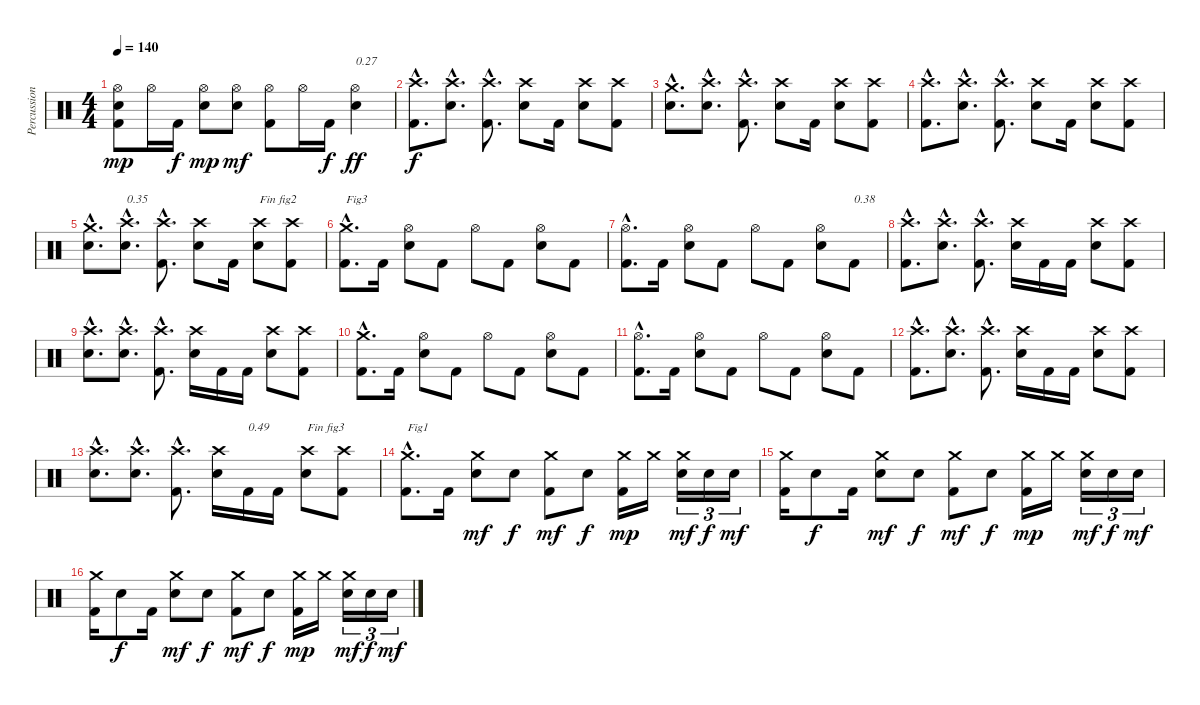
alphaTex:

\track ("Percussions" "Percussion") {instrument percussion}
\staff {score}
\articulation defaults
\ts (4 4)
\tempo 140
\clef neutral
\ks c
("Kick (hit) 2" "Electric Snare (hit)" "Hi-Hat (open)").8{dy mp} "Hi-Hat (open)".16 "Kick (hit) 2".16{dy f} ("Electric Snare (hit)" "Hi-Hat (open)").8{dy mp} ("Electric Snare (hit)" "Hi-Hat (open)").8{dy mf} ("Kick (hit) 2" "Hi-Hat (open)").8 "Hi-Hat (open)".16 "Kick (hit) 2".16{dy f} ("Electric Snare (hit)" "Hi-Hat (open)").4{txt "0.27" dy ff} |
("Kick (hit) 2"{hac} "Crash high (hit)"{hac}).8{d dy f} ("Electric Snare (hit)"{hac} "Crash high (hit)"{hac}).8{d} ("Kick (hit) 2"{hac} "Crash high (hit)"{hac}).8{d} ("Electric Snare (hit)" "Crash high (hit)").8 "Kick (hit) 2".16 ("Electric Snare (hit)" "Crash high (hit)").8 ("Kick (hit) 2" "Crash high (hit)").8 |
("Electric Snare (hit)"{hac} "Crash medium (hit)"{hac}).8{d} ("Electric Snare (hit)"{hac} "Crash high (hit)"{hac}).8{d} ("Kick (hit) 2"{hac} "Crash high (hit)"{hac}).8{d} ("Electric Snare (hit)" "Crash high (hit)").8 "Kick (hit) 2".16 ("Electric Snare (hit)" "Crash high (hit)").8 ("Kick (hit) 2" "Crash high (hit)").8 |
("Kick (hit) 2"{hac} "Crash high (hit)"{hac}).8{d} ("Electric Snare (hit)"{hac} "Crash high (hit)"{hac}).8{d} ("Kick (hit) 2"{hac} "Crash high (hit)"{hac}).8{d} ("Electric Snare (hit)" "Crash high (hit)").8 "Kick (hit) 2".16 ("Electric Snare (hit)" "Crash high (hit)").8 ("Kick (hit) 2" "Crash high (hit)").8 |
("Electric Snare (hit)"{hac} "Crash medium (hit)"{hac}).8{d} ("Electric Snare (hit)"{hac} "Crash high (hit)"{hac}).8{d txt "0.35"} ("Kick (hit) 2"{hac} "Crash high (hit)"{hac}).8{d} ("Electric Snare (hit)" "Crash high (hit)").8 "Kick (hit) 2".16 ("Electric Snare (hit)" "Crash high (hit)").8{txt "Fin fig2"} ("Kick (hit) 2" "Crash high (hit)").8 |
("Kick (hit) 2"{hac} "Crash medium (hit)"{hac}).8{d txt "Fig3"} "Kick (hit) 2".16 ("Electric Snare (hit)" "Hi-Hat (open)").8 "Kick (hit) 2".8 "Hi-Hat (open)".8 "Kick (hit) 2".8 ("Electric Snare (hit)" "Hi-Hat (open)").8 "Kick (hit) 2".8 |
("Kick (hit) 2"{hac} "Hi-Hat (open)"{hac}).8{d} "Kick (hit) 2".16 ("Electric Snare (hit)" "Hi-Hat (open)").8 "Kick (hit) 2".8 "Hi-Hat (open)".8 "Kick (hit) 2".8 ("Electric Snare (hit)" "Hi-Hat (open)").8 "Kick (hit) 2".8{txt "0.38"} |
("Kick (hit) 2"{hac} "Crash high (hit)"{hac}).8{d} ("Electric Snare (hit)"{hac} "Crash high (hit)"{hac}).8{d} ("Kick (hit) 2"{hac} "Crash high (hit)"{hac}).8{d} ("Electric Snare (hit)" "Crash high (hit)").16 "Kick (hit) 2".16 "Kick (hit) 2".16 ("Electric Snare (hit)" "Crash high (hit)").8 ("Kick (hit) 2" "Crash high (hit)").8 |
("Electric Snare (hit)"{hac} "Crash high (hit)"{hac}).8{d} ("Electric Snare (hit)"{hac} "Crash high (hit)"{hac}).8{d} ("Kick (hit) 2"{hac} "Crash high (hit)"{hac}).8{d} ("Electric Snare (hit)" "Crash high (hit)").16 "Kick (hit) 2".16 "Kick (hit) 2".16 ("Electric Snare (hit)" "Crash high (hit)").8 ("Kick (hit) 2" "Crash high (hit)").8 |
("Kick (hit) 2"{hac} "Crash medium (hit)"{hac}).8{d} "Kick (hit) 2".16 ("Electric Snare (hit)" "Hi-Hat (open)").8 "Kick (hit) 2".8 "Hi-Hat (open)".8 "Kick (hit) 2".8 ("Electric Snare (hit)" "Hi-Hat (open)").8 "Kick (hit) 2".8 |
("Kick (hit) 2"{hac} "Hi-Hat (open)"{hac}).8{d} "Kick (hit) 2".16 ("Electric Snare (hit)" "Hi-Hat (open)").8 "Kick (hit) 2".8 "Hi-Hat (open)".8 "Kick (hit) 2".8 ("Electric Snare (hit)" "Hi-Hat (open)").8 "Kick (hit) 2".8 |
("Kick (hit) 2"{hac} "Crash high (hit)"{hac}).8{d} ("Electric Snare (hit)"{hac} "Crash high (hit)"{hac}).8{d} ("Kick (hit) 2"{hac} "Crash high (hit)"{hac}).8{d} ("Electric Snare (hit)" "Crash high (hit)").16 "Kick (hit) 2".16 "Kick (hit) 2".16 ("Electric Snare (hit)" "Crash high (hit)").8 ("Kick (hit) 2" "Crash high (hit)").8 |
("Electric Snare (hit)"{hac} "Crash high (hit)"{hac}).8{d} ("Electric Snare (hit)"{hac} "Crash high (hit)"{hac}).8{d} ("Kick (hit) 2"{hac} "Crash high (hit)"{hac}).8{d} ("Electric Snare (hit)" "Crash high (hit)").16 "Kick (hit) 2".16{txt "0.49"} "Kick (hit) 2".16 ("Electric Snare (hit)" "Crash high (hit)").8{txt "Fin fig3"} ("Kick (hit) 2" "Crash high (hit)").8 |
("Kick (hit) 2"{hac} "Crash medium (hit)"{hac}).8{d txt "Fig1"} "Kick (hit) 2".16 ("Electric Snare (hit)" "Crash medium (hit)").8{dy mf} "Electric Snare (hit)".8{dy f} ("Kick (hit) 2" "Crash medium (hit)").8{dy mf} "Electric Snare (hit)".8{dy f} ("Kick (hit) 2" "Crash medium (hit)").16{dy mp} "Crash medium (hit)".16 ("Electric Snare (hit)" "Crash medium (hit)").16{tu (3 2) dy mf} "Electric Snare (hit)".16{tu (3 2) dy f} "Electric Snare (hit)".16{tu (3 2) dy mf} |
("Kick (hit) 2" "Crash medium (hit)").16 "Electric Snare (hit)".8{dy f} "Kick (hit) 2".16 ("Electric Snare (hit)" "Crash medium (hit)").8{dy mf} "Electric Snare (hit)".8{dy f} ("Kick (hit) 2" "Crash medium (hit)").8{dy mf} "Electric Snare (hit)".8{dy f} ("Kick (hit) 2" "Crash medium (hit)").16{dy mp} "Crash medium (hit)".16 ("Electric Snare (hit)" "Crash medium (hit)").16{tu (3 2) dy mf} "Electric Snare (hit)".16{tu (3 2) dy f} "Electric Snare (hit)".16{tu (3 2) dy mf} |
("Kick (hit) 2" "Crash medium (hit)").16 "Electric Snare (hit)".8{dy f} "Kick (hit) 2".16 ("Electric Snare (hit)" "Crash medium (hit)").8{dy mf} "Electric Snare (hit)".8{dy f} ("Kick (hit) 2" "Crash medium (hit)").8{dy mf} "Electric Snare (hit)".8{dy f} ("Kick (hit) 2" "Crash medium (hit)").16{dy mp} "Crash medium (hit)".16 ("Electric Snare (hit)" "Crash medium (hit)").16{tu (3 2) dy mf} "Electric Snare (hit)".16{tu (3 2) dy f} "Electric Snare (hit)".16{tu (3 2) dy mf}
